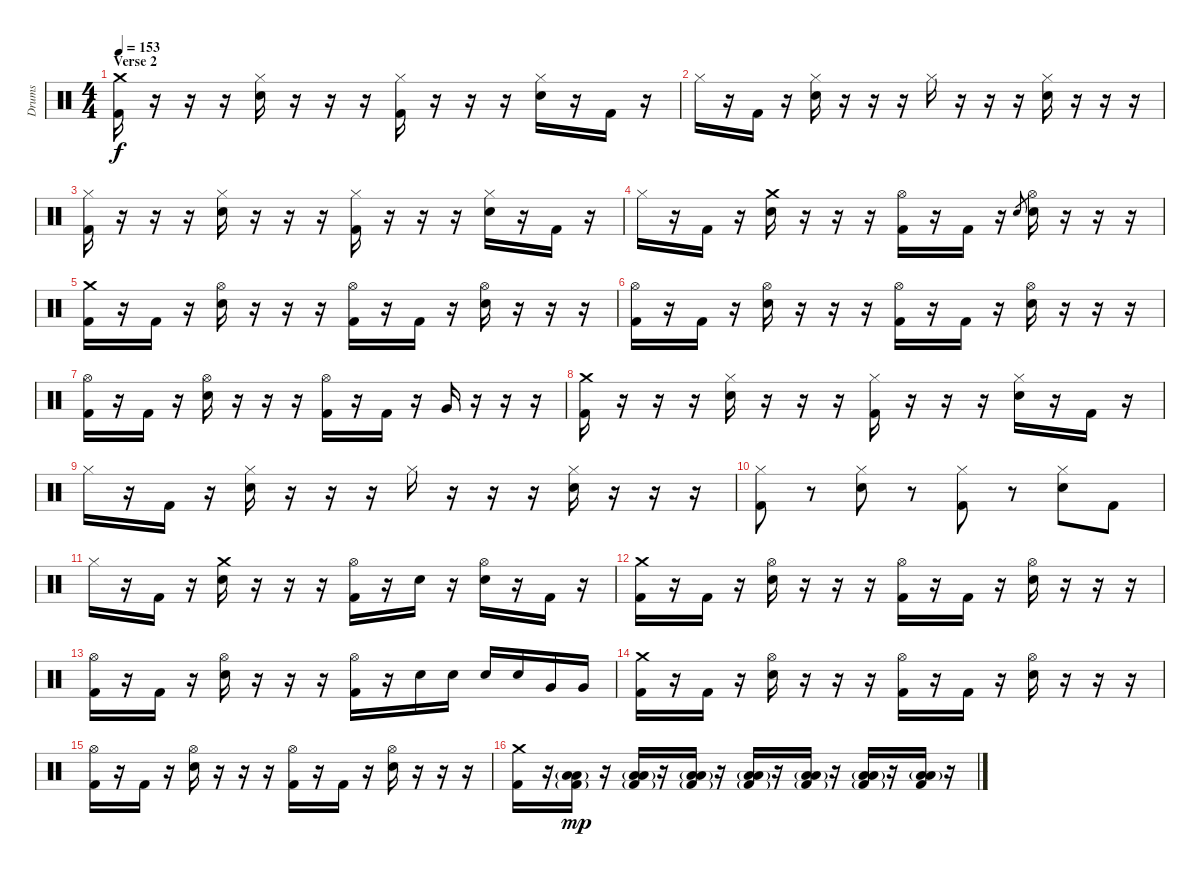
\track ("Drums" "Drums") {instrument percussion}
\staff {score}
\articulation defaults
\ts (4 4)
\section ("" "Verse 2")
\tempo 153
\clef neutral
\ks c
("Crash medium (hit)" "Kick (hit) 2").16{dy f} r.16 r.16 r.16 ("Hi-Hat (closed)" "Electric Snare (hit)").16 r.16 r.16 r.16 ("Hi-Hat (closed)" "Kick (hit) 2").16 r.16 r.16 r.16 ("Hi-Hat (closed)" "Electric Snare (hit)").16 r.16 "Kick (hit) 2".16 r.16 |
"Hi-Hat (closed)".16 r.16 "Kick (hit) 2".16 r.16 ("Hi-Hat (closed)" "Electric Snare (hit)").16 r.16 r.16 r.16 "Hi-Hat (closed)".16 r.16 r.16 r.16 ("Hi-Hat (closed)" "Electric Snare (hit)").16 r.16 r.16 r.16 |
("Hi-Hat (closed)" "Kick (hit) 2").16 r.16 r.16 r.16 ("Hi-Hat (closed)" "Electric Snare (hit)").16 r.16 r.16 r.16 ("Hi-Hat (closed)" "Kick (hit) 2").16 r.16 r.16 r.16 ("Hi-Hat (closed)" "Electric Snare (hit)").16 r.16 "Kick (hit) 2".16 r.16 |
"Hi-Hat (closed)".16 r.16 "Kick (hit) 2".16 r.16 ("Crash medium (hit)" "Electric Snare (hit)").16 r.16 r.16 r.16 ("Hi-Hat (open)" "Kick (hit) 2").16 r.16 "Kick (hit) 2".16 r.16 "Electric Snare (hit)".8{gr} ("Hi-Hat (open)" "Electric Snare (hit)").16 r.16 r.16 r.16 |
("Crash medium (hit)" "Kick (hit) 2").16 r.16 "Kick (hit) 2".16 r.16 ("Hi-Hat (open)" "Electric Snare (hit)").16 r.16 r.16 r.16 ("Hi-Hat (open)" "Kick (hit) 2").16 r.16 "Kick (hit) 2".16 r.16 ("Hi-Hat (open)" "Electric Snare (hit)").16 r.16 r.16 r.16 |
("Hi-Hat (open)" "Kick (hit) 2").16 r.16 "Kick (hit) 2".16 r.16 ("Hi-Hat (open)" "Electric Snare (hit)").16 r.16 r.16 r.16 ("Hi-Hat (open)" "Kick (hit) 2").16 r.16 "Kick (hit) 2".16 r.16 ("Hi-Hat (open)" "Electric Snare (hit)").16 r.16 r.16 r.16 |
("Hi-Hat (open)" "Kick (hit) 2").16 r.16 "Kick (hit) 2".16 r.16 ("Hi-Hat (open)" "Electric Snare (hit)").16 r.16 r.16 r.16 ("Hi-Hat (open)" "Kick (hit) 2").16 r.16 "Kick (hit) 2".16 r.16 "Very Low Tom (hit)".16 r.16 r.16 r.16 |
("Crash medium (hit)" "Kick (hit) 2").16 r.16 r.16 r.16 ("Hi-Hat (closed)" "Electric Snare (hit)").16 r.16 r.16 r.16 ("Hi-Hat (closed)" "Kick (hit) 2").16 r.16 r.16 r.16 ("Hi-Hat (closed)" "Electric Snare (hit)").16 r.16 "Kick (hit) 2".16 r.16 |
"Hi-Hat (closed)".16 r.16 "Kick (hit) 2".16 r.16 ("Hi-Hat (closed)" "Electric Snare (hit)").16 r.16 r.16 r.16 "Hi-Hat (closed)".16 r.16 r.16 r.16 ("Hi-Hat (closed)" "Electric Snare (hit)").16 r.16 r.16 r.16 |
("Hi-Hat (closed)" "Kick (hit) 2").8 r.8 ("Hi-Hat (closed)" "Electric Snare (hit)").8 r.8 ("Hi-Hat (closed)" "Kick (hit) 2").8 r.8 ("Hi-Hat (closed)" "Electric Snare (hit)").8 "Kick (hit) 2".8 |
"Hi-Hat (closed)".16 r.16 "Kick (hit) 2".16 r.16 ("Crash medium (hit)" "Electric Snare (hit)").16 r.16 r.16 r.16 ("Hi-Hat (open)" "Kick (hit) 2").16 r.16 "Electric Snare (hit)".16 r.16 ("Hi-Hat (open)" "Electric Snare (hit)").16 r.16 "Kick (hit) 2".16 r.16 |
("Crash medium (hit)" "Kick (hit) 2").16 r.16 "Kick (hit) 2".16 r.16 ("Hi-Hat (open)" "Electric Snare (hit)").16 r.16 r.16 r.16 ("Hi-Hat (open)" "Kick (hit) 2").16 r.16 "Kick (hit) 2".16 r.16 ("Hi-Hat (open)" "Electric Snare (hit)").16 r.16 r.16 r.16 |
("Hi-Hat (open)" "Kick (hit) 2").16 r.16 "Kick (hit) 2".16 r.16 ("Hi-Hat (open)" "Electric Snare (hit)").16 r.16 r.16 r.16 ("Hi-Hat (open)" "Kick (hit) 2").16 r.16 "Electric Snare (hit)".16 "Electric Snare (hit)".16 "Electric Snare (hit)".16 "Electric Snare (hit)".16 "Very Low Tom (hit)".16 "Very Low Tom (hit)".16 |
("Crash medium (hit)" "Kick (hit) 2").16 r.16 "Kick (hit) 2".16 r.16 ("Hi-Hat (open)" "Electric Snare (hit)").16 r.16 r.16 r.16 ("Hi-Hat (open)" "Kick (hit) 2").16 r.16 "Kick (hit) 2".16 r.16 ("Hi-Hat (open)" "Electric Snare (hit)").16 r.16 r.16 r.16 |
("Hi-Hat (open)" "Kick (hit) 2").16 r.16 "Kick (hit) 2".16 r.16 ("Hi-Hat (open)" "Electric Snare (hit)").16 r.16 r.16 r.16 ("Hi-Hat (open)" "Kick (hit) 2").16 r.16 "Kick (hit) 2".16 r.16 ("Hi-Hat (open)" "Electric Snare (hit)").16 r.16 r.16 r.16 |
("Crash medium (hit)" "Kick (hit) 2").16 r.16 ("Low Floor Tom (hit)"{g} "Low Floor Tom (hit)" "Kick (hit) 2"{g}).16{dy mp} r.16 ("Low Floor Tom (hit)"{g} "Low Floor Tom (hit)" "Kick (hit) 2"{g}).16 r.16 ("Low Floor Tom (hit)"{g} "Low Floor Tom (hit)" "Kick (hit) 2"{g}).16 r.16 ("Low Floor Tom (hit)"{g} "Low Floor Tom (hit)" "Kick (hit) 2"{g}).16 r.16 ("Low Floor Tom (hit)"{g} "Low Floor Tom (hit)" "Kick (hit) 2"{g}).16 r.16 ("Low Floor Tom (hit)"{g} "Low Floor Tom (hit)" "Kick (hit) 2"{g}).16 r.16 ("Low Floor Tom (hit)"{g} "Low Floor Tom (hit)" "Kick (hit) 2").16 r.16
